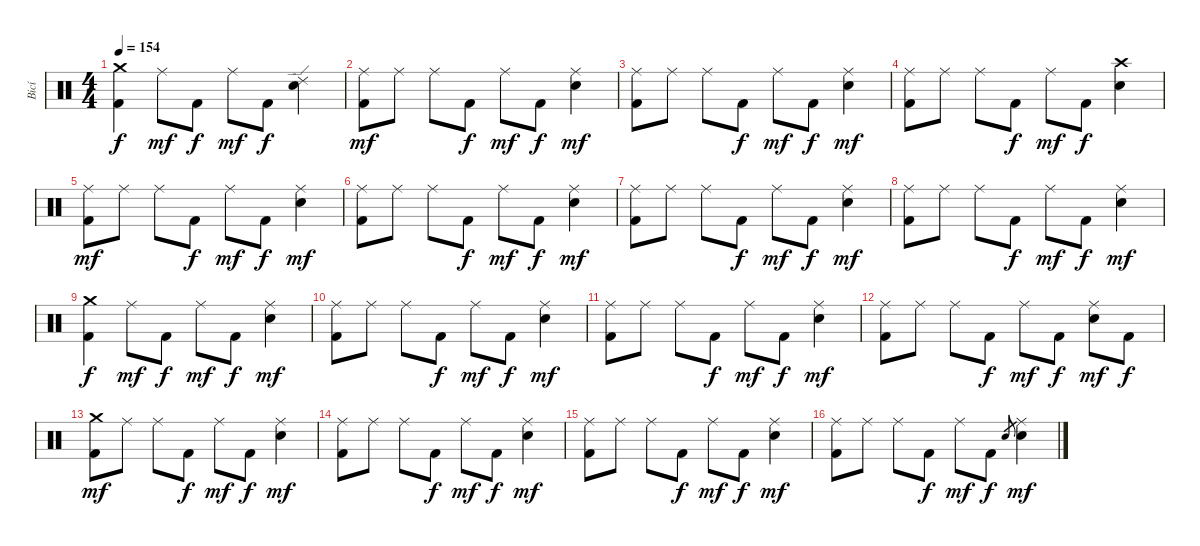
\track ("Bicí" "Bicí") {instrument percussion}
\staff {score}
\articulation defaults
\ts (4 4)
\tempo 154
\clef neutral
\ks c
("Crash medium (hit)" "Kick (hit) 2").4{dy f} "Ride (middle)".8{dy mf} "Kick (hit) 2".8{dy f} "Ride (middle)".8{dy mf} "Kick (hit) 2".8{dy f} ("Ride (edge) 2" "Electric Snare (hit)").4 |
("Ride (middle)" "Kick (hit) 2").8{dy mf} "Ride (middle)".8 "Ride (middle)".8 "Kick (hit) 2".8{dy f} "Ride (middle)".8{dy mf} "Kick (hit) 2".8{dy f} ("Ride (middle)" "Electric Snare (hit)").4{dy mf} |
("Ride (middle)" "Kick (hit) 2").8 "Ride (middle)".8 "Ride (middle)".8 "Kick (hit) 2".8{dy f} "Ride (middle)".8{dy mf} "Kick (hit) 2".8{dy f} ("Ride (middle)" "Electric Snare (hit)").4{dy mf} |
("Ride (middle)" "Kick (hit) 2").8 "Ride (middle)".8 "Ride (middle)".8 "Kick (hit) 2".8{dy f} "Ride (middle)".8{dy mf} "Kick (hit) 2".8{dy f} ("Crash high (hit)" "Electric Snare (hit)").4 |
("Ride (middle)" "Kick (hit) 2").8{dy mf} "Ride (middle)".8 "Ride (middle)".8 "Kick (hit) 2".8{dy f} "Ride (middle)".8{dy mf} "Kick (hit) 2".8{dy f} ("Ride (middle)" "Electric Snare (hit)").4{dy mf} |
("Ride (middle)" "Kick (hit) 2").8 "Ride (middle)".8 "Ride (middle)".8 "Kick (hit) 2".8{dy f} "Ride (middle)".8{dy mf} "Kick (hit) 2".8{dy f} ("Ride (middle)" "Electric Snare (hit)").4{dy mf} |
("Ride (middle)" "Kick (hit) 2").8 "Ride (middle)".8 "Ride (middle)".8 "Kick (hit) 2".8{dy f} "Ride (middle)".8{dy mf} "Kick (hit) 2".8{dy f} ("Ride (middle)" "Electric Snare (hit)").4{dy mf} |
("Ride (middle)" "Kick (hit) 2").8 "Ride (middle)".8 "Ride (middle)".8 "Kick (hit) 2".8{dy f} "Ride (middle)".8{dy mf} "Kick (hit) 2".8{dy f} ("Ride (middle)" "Electric Snare (hit)").4{dy mf} |
("Crash medium (hit)" "Kick (hit) 2").4{dy f} "Ride (middle)".8{dy mf} "Kick (hit) 2".8{dy f} "Ride (middle)".8{dy mf} "Kick (hit) 2".8{dy f} ("Ride (middle)" "Electric Snare (hit)").4{dy mf} |
("Ride (middle)" "Kick (hit) 2").8 "Ride (middle)".8 "Ride (middle)".8 "Kick (hit) 2".8{dy f} "Ride (middle)".8{dy mf} "Kick (hit) 2".8{dy f} ("Ride (middle)" "Electric Snare (hit)").4{dy mf} |
("Ride (middle)" "Kick (hit) 2").8 "Ride (middle)".8 "Ride (middle)".8 "Kick (hit) 2".8{dy f} "Ride (middle)".8{dy mf} "Kick (hit) 2".8{dy f} ("Ride (middle)" "Electric Snare (hit)").4{dy mf} |
("Ride (middle)" "Kick (hit) 2").8 "Ride (middle)".8 "Ride (middle)".8 "Kick (hit) 2".8{dy f} "Ride (middle)".8{dy mf} "Kick (hit) 2".8{dy f} ("Ride (middle)" "Electric Snare (hit)").8{dy mf} "Kick (hit) 2".8{dy f} |
("Crash medium (hit)" "Kick (hit) 2").8{dy mf} "Ride (middle)".8 "Ride (middle)".8 "Kick (hit) 2".8{dy f} "Ride (middle)".8{dy mf} "Kick (hit) 2".8{dy f} ("Ride (middle)" "Electric Snare (hit)").4{dy mf} |
("Ride (middle)" "Kick (hit) 2").8 "Ride (middle)".8 "Ride (middle)".8 "Kick (hit) 2".8{dy f} "Ride (middle)".8{dy mf} "Kick (hit) 2".8{dy f} ("Ride (middle)" "Electric Snare (hit)").4{dy mf} |
("Ride (middle)" "Kick (hit) 2").8 "Ride (middle)".8 "Ride (middle)".8 "Kick (hit) 2".8{dy f} "Ride (middle)".8{dy mf} "Kick (hit) 2".8{dy f} ("Ride (middle)" "Electric Snare (hit)").4{dy mf} |
("Ride (middle)" "Kick (hit) 2").8 "Ride (middle)".8 "Ride (middle)".8 "Kick (hit) 2".8{dy f} "Ride (middle)".8{dy mf} "Kick (hit) 2".8{dy f} "Electric Snare (hit)".8{gr} ("Ride (middle)" "Electric Snare (hit)").4{dy mf}
